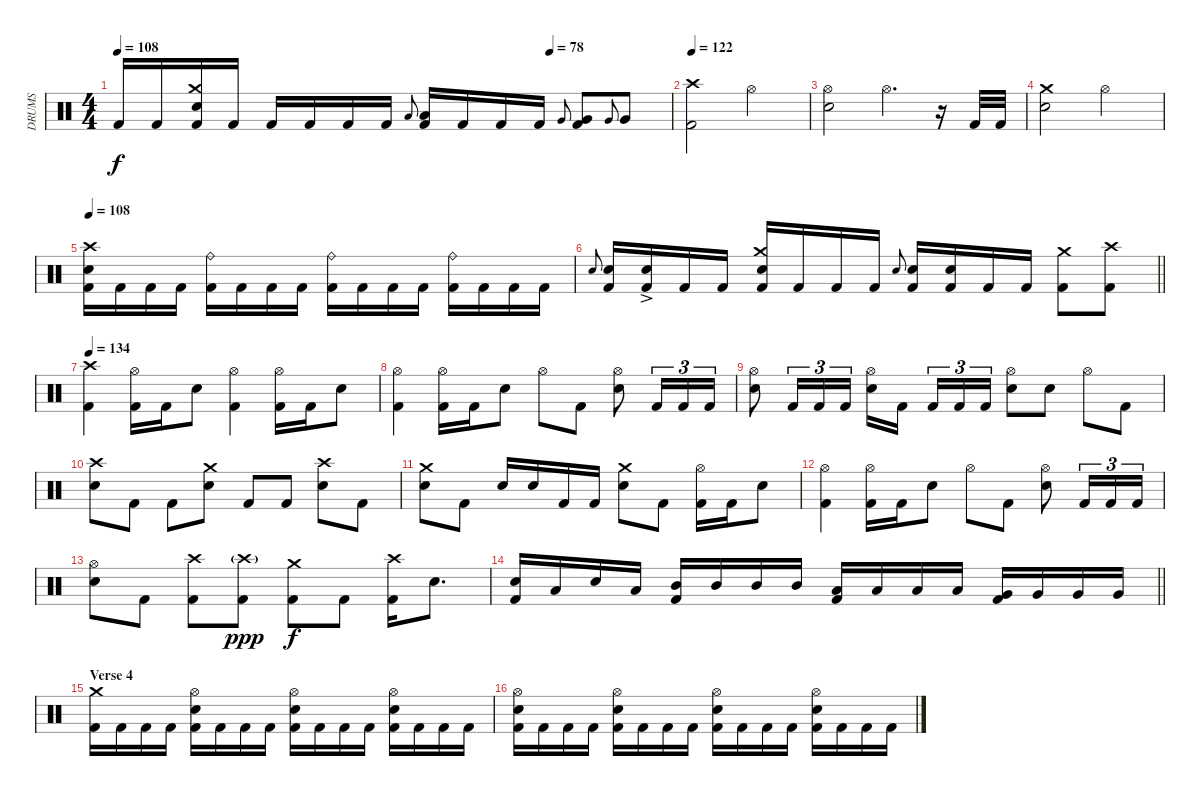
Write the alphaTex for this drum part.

\track ("DRUMS" "DRUMS") {instrument percussion}
\staff {score}
\articulation defaults
\ts (4 4)
\tempo 108
\tempo (78 0.78125)
\clef neutral
\ks c "Kick (hit) 2".16{dy f} "Kick (hit) 2".16
("Crash medium (hit)" "Snare (hit) 2" "Kick (hit) 2").16 "Kick (hit) 2".16 "Kick (hit) 2".16 "Kick (hit) 2".16 "Kick (hit) 2".16 "Kick (hit) 2".16 "Low Tom (hit)".8{gr onbeat} ("Low Tom (hit)" "Kick (hit) 2").16 "Kick (hit) 2".16 "Kick (hit) 2".16 "Kick (hit) 2".16 "Very Low Tom (hit)".8{gr onbeat} ("Very Low Tom (hit)" "Kick (hit) 2").8 "Very Low Tom (hit)".8{gr onbeat} "Very Low Tom (hit)".8 |
\tempo 122
("Crash high (hit)" "Kick (hit) 2").2 "Hi-Hat (open)".2 |
("Hi-Hat (open)" "Snare (hit) 2").2 "Hi-Hat (open)".4{d} r.16 "Kick (hit) 2".32 "Kick (hit) 2".32 |
("Crash medium (hit)" "Snare (hit) 2").2 "Hi-Hat (open)".2 |
\tempo 108
("Crash high (hit)" "Snare (hit) 2" "Kick (hit) 2").16 "Kick (hit) 2".16 "Kick (hit) 2".16 "Kick (hit) 2".16 ("Ride (bell)" "Kick (hit) 2").16 "Kick (hit) 2".16 "Kick (hit) 2".16 "Kick (hit) 2".16 ("Ride (bell)" "Kick (hit) 2").16 "Kick (hit) 2".16 "Kick (hit) 2".16 "Kick (hit) 2".16 ("Ride (bell)" "Kick (hit) 2").16 "Kick (hit) 2".16 "Kick (hit) 2".16 "Kick (hit) 2".16 |
\barLineRight lightlight "Snare (hit) 2".8{gr onbeat}
("Snare (hit) 2" "Kick (hit) 2").16 ("Snare (hit) 2"{ac} "Kick (hit) 2").16 "Kick (hit) 2".16 "Kick (hit) 2".16 ("Crash medium (hit)" "Snare (hit) 2" "Kick (hit) 2").16 "Kick (hit) 2".16 "Kick (hit) 2".16 "Kick (hit) 2".16 "Snare (hit) 2".8{gr onbeat} ("Snare (hit) 2" "Kick (hit) 2").16 ("Snare (hit) 2" "Kick (hit) 2").16 "Kick (hit) 2".16 "Kick (hit) 2".16 ("Crash medium (hit)" "Kick (hit) 2").8 ("Crash high (hit)" "Kick (hit) 2").8 |
\tempo 134
("Crash high (hit)" "Kick (hit) 2").4 ("Hi-Hat (open)" "Kick (hit) 2").16 "Kick (hit) 2".16 "Snare (hit) 2".8 ("Hi-Hat (open)" "Kick (hit) 2").4 ("Hi-Hat (open)" "Kick (hit) 2").16 "Kick (hit) 2".16 "Snare (hit) 2".8 |
("Hi-Hat (open)" "Kick (hit) 2").4 ("Hi-Hat (open)" "Kick (hit) 2").16 "Kick (hit) 2".16 "Snare (hit) 2".8 "Hi-Hat (open)".8 "Kick (hit) 2".8 ("Hi-Hat (open)" "Snare (hit) 2").8 "Kick (hit) 2".16{tu (3 2)} "Kick (hit) 2".16{tu (3 2)} "Kick (hit) 2".16{tu (3 2)} |
("Hi-Hat (open)" "Snare (hit) 2").8 "Kick (hit) 2".16{tu (3 2)} "Kick (hit) 2".16{tu (3 2)} "Kick (hit) 2".16{tu (3 2)} ("Hi-Hat (open)" "Snare (hit) 2").16 "Kick (hit) 2".16{beam splitsecondary} "Kick (hit) 2".16{tu (3 2)} "Kick (hit) 2".16{tu (3 2)} "Kick (hit) 2".16{tu (3 2)} ("Hi-Hat (open)" "Snare (hit) 2").8 "Snare (hit) 2".8 "Hi-Hat (open)".8 "Kick (hit) 2".8 |
("Crash high (hit)" "Snare (hit) 2").8 "Kick (hit) 2".8 "Kick (hit) 2".8 ("Crash medium (hit)" "Snare (hit) 2").8 "Kick (hit) 2".8 "Kick (hit) 2".8 ("Crash high (hit)" "Snare (hit) 2").8 "Kick (hit) 2".8 |
("Crash medium (hit)" "Snare (hit) 2").8 "Kick (hit) 2".8 "Snare (hit) 2".16 "Snare (hit) 2".16 "Kick (hit) 2".16 "Kick (hit) 2".16 ("Crash medium (hit)" "Snare (hit) 2").8 "Kick (hit) 2".8 ("Hi-Hat (open)" "Kick (hit) 2").16 "Kick (hit) 2".16 "Snare (hit) 2".8 |
("Hi-Hat (open)" "Kick (hit) 2").4 ("Hi-Hat (open)" "Kick (hit) 2").16 "Kick (hit) 2".16 "Snare (hit) 2".8 "Hi-Hat (open)".8 "Kick (hit) 2".8 ("Hi-Hat (open)" "Snare (hit) 2").8 "Kick (hit) 2".16{tu (3 2)} "Kick (hit) 2".16{tu (3 2)} "Kick (hit) 2".16{tu (3 2)} |
("Hi-Hat (open)" "Snare (hit) 2").8 "Kick (hit) 2".8 ("Crash high (hit)" "Kick (hit) 2").8 ("Crash high (hit)"{g} "Kick (hit) 2").8{dy ppp} ("Crash medium (hit)" "Kick (hit) 2").8{dy f} "Kick (hit) 2".8 ("Crash high (hit)" "Kick (hit) 2").16 "Snare (hit) 2".8{d} |
\barLineRight lightlight
("Snare (hit) 2" "Kick (hit) 2").16 "Low Tom (hit)".16 "Snare (hit) 2".16 "Low Tom (hit)".16 ("Mid Tom (hit)" "Kick (hit) 2").16 "Mid Tom (hit)".16 "Mid Tom (hit)".16 "Mid Tom (hit)".16 ("Low Tom (hit)" "Kick (hit) 2").16 "Low Tom (hit)".16 "Low Tom (hit)".16 "Low Tom (hit)".16 ("Very Low Tom (hit)" "Kick (hit) 2").16 "Very Low Tom (hit)".16 "Very Low Tom (hit)".16 "Very Low Tom (hit)".16 |
\section ("" "Verse 4")
("Crash medium (hit)" "Kick (hit) 2").16 "Kick (hit) 2".16 "Kick (hit) 2".16 "Kick (hit) 2".16 ("Hi-Hat (open)" "Snare (hit) 2" "Kick (hit) 2").16 "Kick (hit) 2".16 "Kick (hit) 2".16 "Kick (hit) 2".16 ("Hi-Hat (open)" "Snare (hit) 2" "Kick (hit) 2").16 "Kick (hit) 2".16 "Kick (hit) 2".16 "Kick (hit) 2".16 ("Hi-Hat (open)" "Snare (hit) 2" "Kick (hit) 2").16 "Kick (hit) 2".16 "Kick (hit) 2".16 "Kick (hit) 2".16 |
("Hi-Hat (open)" "Snare (hit) 2" "Kick (hit) 2").16 "Kick (hit) 2".16 "Kick (hit) 2".16 "Kick (hit) 2".16 ("Hi-Hat (open)" "Snare (hit) 2" "Kick (hit) 2").16 "Kick (hit) 2".16 "Kick (hit) 2".16 "Kick (hit) 2".16 ("Hi-Hat (open)" "Snare (hit) 2" "Kick (hit) 2").16 "Kick (hit) 2".16 "Kick (hit) 2".16 "Kick (hit) 2".16 ("Hi-Hat (open)" "Snare (hit) 2" "Kick (hit) 2").16 "Kick (hit) 2".16 "Kick (hit) 2".16 "Kick (hit) 2".16
